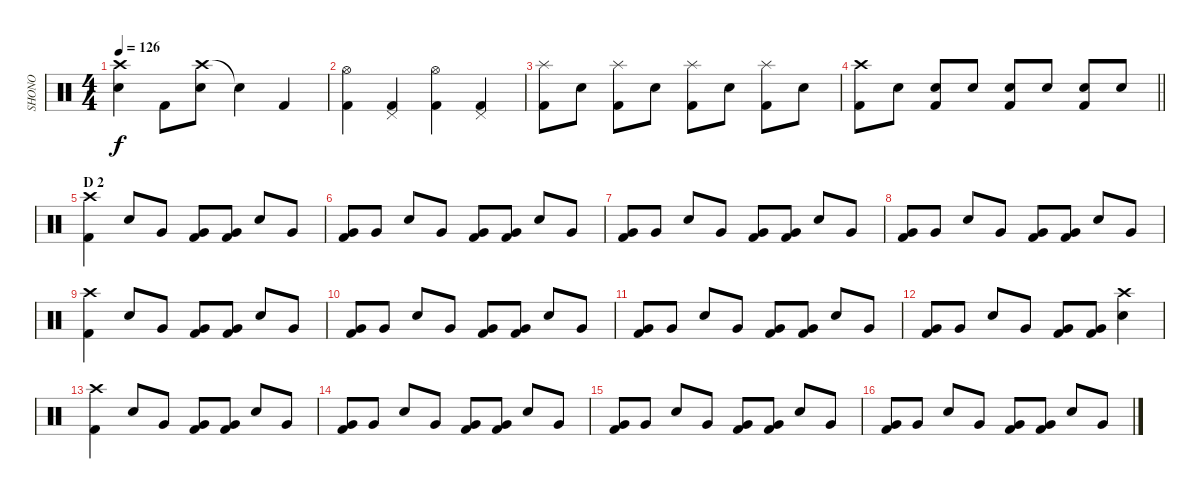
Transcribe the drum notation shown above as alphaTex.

\track ("SHONO" "SHONO") {instrument percussion}
\staff {score}
\articulation defaults
\ts (4 4)
\tempo 126
\clef neutral
\ks c
("Crash high (hit)" "Snare (hit) 2").4{dy f} "Kick (hit) 2".8 ("Crash high (hit)" "Snare (hit) 2").8 "Snare (hit)"{t}.4 "Kick (hit) 2".4 |
("Hi-Hat (open)" "Kick (hit) 2").4 ("Pedal Hi-Hat (hit)" "Kick (hit) 2").4 ("Hi-Hat (open)" "Kick (hit) 2").4 ("Pedal Hi-Hat (hit)" "Kick (hit) 2").4 |
("Splash (hit)" "Kick (hit) 2").8 "Snare (hit) 2".8 ("Splash (hit)" "Kick (hit) 2").8 "Snare (hit) 2".8 ("Splash (hit)" "Kick (hit) 2").8 "Snare (hit) 2".8 ("Splash (hit)" "Kick (hit) 2").8 "Snare (hit) 2".8 |
\barLineRight lightlight
("Crash high (hit)" "Kick (hit) 2").8 "Snare (hit) 2".8 ("Snare (hit) 2" "Kick (hit) 2").8 "Snare (hit) 2".8 ("Snare (hit) 2" "Kick (hit) 2").8 "Snare (hit) 2".8 ("Snare (hit) 2" "Kick (hit) 2").8 "Snare (hit) 2".8 |
\section ("" "D 2")
("Crash high (hit)" "Kick (hit) 2").4 "Snare (hit) 2".8 "Very Low Tom (hit)".8 ("Very Low Tom (hit)" "Kick (hit) 2").8 ("Very Low Tom (hit)" "Kick (hit) 2").8 "Snare (hit) 2".8 "Very Low Tom (hit)".8 |
("Very Low Tom (hit)" "Kick (hit) 2").8 "Very Low Tom (hit)".8 "Snare (hit) 2".8 "Very Low Tom (hit)".8 ("Very Low Tom (hit)" "Kick (hit) 2").8 ("Very Low Tom (hit)" "Kick (hit) 2").8 "Snare (hit) 2".8 "Very Low Tom (hit)".8 |
("Very Low Tom (hit)" "Kick (hit) 2").8 "Very Low Tom (hit)".8 "Snare (hit) 2".8 "Very Low Tom (hit)".8 ("Very Low Tom (hit)" "Kick (hit) 2").8 ("Very Low Tom (hit)" "Kick (hit) 2").8 "Snare (hit) 2".8 "Very Low Tom (hit)".8 |
("Very Low Tom (hit)" "Kick (hit) 2").8 "Very Low Tom (hit)".8 "Snare (hit) 2".8 "Very Low Tom (hit)".8 ("Very Low Tom (hit)" "Kick (hit) 2").8 ("Very Low Tom (hit)" "Kick (hit) 2").8 "Snare (hit) 2".8 "Very Low Tom (hit)".8 |
("Crash high (hit)" "Kick (hit) 2").4 "Snare (hit) 2".8 "Very Low Tom (hit)".8 ("Very Low Tom (hit)" "Kick (hit) 2").8 ("Very Low Tom (hit)" "Kick (hit) 2").8 "Snare (hit) 2".8 "Very Low Tom (hit)".8 |
("Very Low Tom (hit)" "Kick (hit) 2").8 "Very Low Tom (hit)".8 "Snare (hit) 2".8 "Very Low Tom (hit)".8 ("Very Low Tom (hit)" "Kick (hit) 2").8 ("Very Low Tom (hit)" "Kick (hit) 2").8 "Snare (hit) 2".8 "Very Low Tom (hit)".8 |
("Very Low Tom (hit)" "Kick (hit) 2").8 "Very Low Tom (hit)".8 "Snare (hit) 2".8 "Very Low Tom (hit)".8 ("Very Low Tom (hit)" "Kick (hit) 2").8 ("Very Low Tom (hit)" "Kick (hit) 2").8 "Snare (hit) 2".8 "Very Low Tom (hit)".8 |
("Very Low Tom (hit)" "Kick (hit) 2").8 "Very Low Tom (hit)".8 "Snare (hit) 2".8 "Very Low Tom (hit)".8 ("Very Low Tom (hit)" "Kick (hit) 2").8 ("Very Low Tom (hit)" "Kick (hit) 2").8 ("Crash high (hit)" "Snare (hit) 2").4 |
("Crash high (hit)" "Kick (hit) 2").4 "Snare (hit) 2".8 "Very Low Tom (hit)".8 ("Very Low Tom (hit)" "Kick (hit) 2").8 ("Very Low Tom (hit)" "Kick (hit) 2").8 "Snare (hit) 2".8 "Very Low Tom (hit)".8 |
("Very Low Tom (hit)" "Kick (hit) 2").8 "Very Low Tom (hit)".8 "Snare (hit) 2".8 "Very Low Tom (hit)".8 ("Very Low Tom (hit)" "Kick (hit) 2").8 ("Very Low Tom (hit)" "Kick (hit) 2").8 "Snare (hit) 2".8 "Very Low Tom (hit)".8 |
("Very Low Tom (hit)" "Kick (hit) 2").8 "Very Low Tom (hit)".8 "Snare (hit) 2".8 "Very Low Tom (hit)".8 ("Very Low Tom (hit)" "Kick (hit) 2").8 ("Very Low Tom (hit)" "Kick (hit) 2").8 "Snare (hit) 2".8 "Very Low Tom (hit)".8 |
("Very Low Tom (hit)" "Kick (hit) 2").8 "Very Low Tom (hit)".8 "Snare (hit) 2".8 "Very Low Tom (hit)".8 ("Very Low Tom (hit)" "Kick (hit) 2").8 ("Very Low Tom (hit)" "Kick (hit) 2").8 "Snare (hit) 2".8 "Very Low Tom (hit)".8
